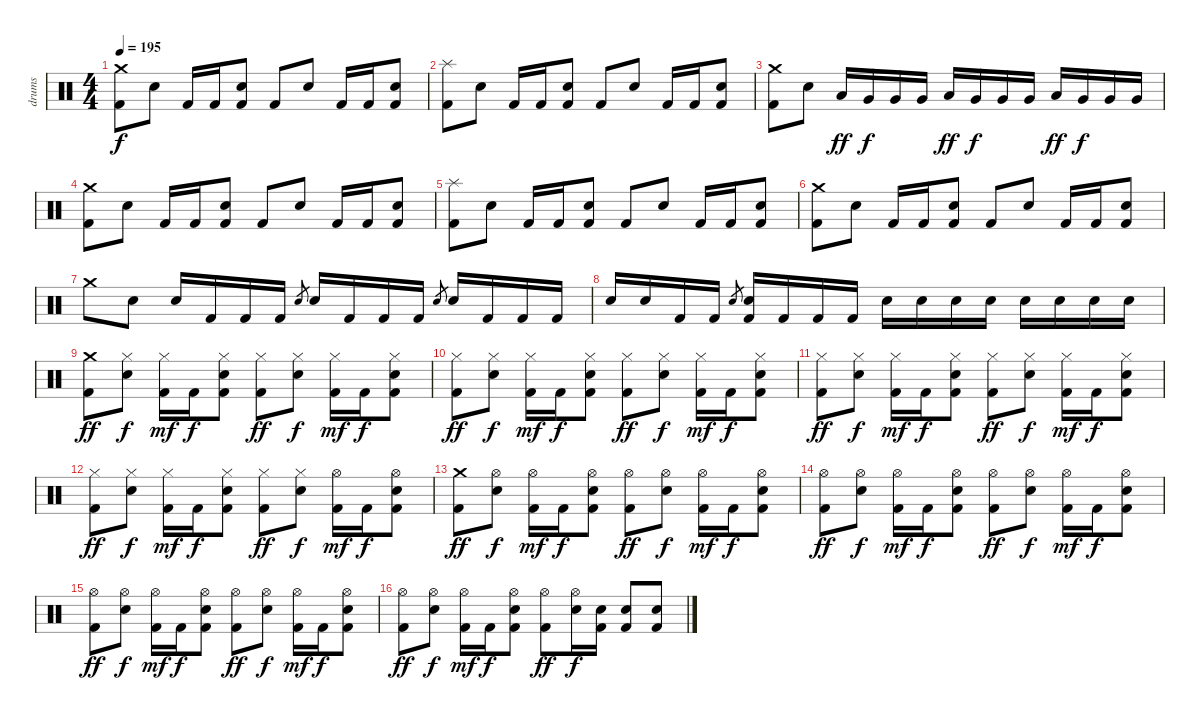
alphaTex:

\track ("drums" "drums") {instrument percussion}
\staff {score}
\articulation defaults
\ts (4 4)
\tempo 195
\clef neutral
\ks c
("Crash medium (hit)" "Kick (hit) 2").8{dy f} "Electric Snare (hit)".8 "Kick (hit) 2".16 "Kick (hit) 2".16 ("Electric Snare (hit)" "Kick (hit) 2").8 "Kick (hit) 2".8 "Electric Snare (hit)".8 "Kick (hit) 2".16 "Kick (hit) 2".16 ("Electric Snare (hit)" "Kick (hit) 2").8 |
("Splash (hit)" "Kick (hit) 2").8 "Electric Snare (hit)".8 "Kick (hit) 2".16 "Kick (hit) 2".16 ("Electric Snare (hit)" "Kick (hit) 2").8 "Kick (hit) 2".8 "Electric Snare (hit)".8 "Kick (hit) 2".16 "Kick (hit) 2".16 ("Electric Snare (hit)" "Kick (hit) 2").8 |
("Crash medium (hit)" "Kick (hit) 2").8 "Electric Snare (hit)".8 "Low Floor Tom (hit)".16{dy ff} "Very Low Tom (hit)".16{dy f} "Very Low Tom (hit)".16 "Very Low Tom (hit)".16 "Low Floor Tom (hit)".16{dy ff} "Very Low Tom (hit)".16{dy f} "Very Low Tom (hit)".16 "Very Low Tom (hit)".16 "Low Floor Tom (hit)".16{dy ff} "Very Low Tom (hit)".16{dy f} "Very Low Tom (hit)".16 "Very Low Tom (hit)".16 |
("Crash medium (hit)" "Kick (hit) 2").8 "Electric Snare (hit)".8 "Kick (hit) 2".16 "Kick (hit) 2".16 ("Electric Snare (hit)" "Kick (hit) 2").8 "Kick (hit) 2".8 "Electric Snare (hit)".8 "Kick (hit) 2".16 "Kick (hit) 2".16 ("Electric Snare (hit)" "Kick (hit) 2").8 |
("Splash (hit)" "Kick (hit) 2").8 "Electric Snare (hit)".8 "Kick (hit) 2".16 "Kick (hit) 2".16 ("Electric Snare (hit)" "Kick (hit) 2").8 "Kick (hit) 2".8 "Electric Snare (hit)".8 "Kick (hit) 2".16 "Kick (hit) 2".16 ("Electric Snare (hit)" "Kick (hit) 2").8 |
("Crash medium (hit)" "Kick (hit) 2").8 "Electric Snare (hit)".8 "Kick (hit) 2".16 "Kick (hit) 2".16 ("Electric Snare (hit)" "Kick (hit) 2").8 "Kick (hit) 2".8 "Electric Snare (hit)".8 "Kick (hit) 2".16 "Kick (hit) 2".16 ("Electric Snare (hit)" "Kick (hit) 2").8 |
"Crash medium (hit)".8 "Electric Snare (hit)".8 "Electric Snare (hit)".16 "Kick (hit) 2".16 "Kick (hit) 2".16 "Kick (hit) 2".16 "Electric Snare (hit)".8{gr} "Electric Snare (hit)".16 "Kick (hit) 2".16 "Kick (hit) 2".16 "Kick (hit) 2".16 "Electric Snare (hit)".8{gr} "Electric Snare (hit)".16 "Kick (hit) 2".16 "Kick (hit) 2".16 "Kick (hit) 2".16 |
"Electric Snare (hit)".16 "Electric Snare (hit)".16 "Kick (hit) 2".16 "Kick (hit) 2".16 "Electric Snare (hit)".8{gr} ("Electric Snare (hit)" "Kick (hit) 2").16 "Kick (hit) 2".16 "Kick (hit) 2".16 "Kick (hit) 2".16 "Electric Snare (hit)".16 "Electric Snare (hit)".16 "Electric Snare (hit)".16 "Electric Snare (hit)".16 "Electric Snare (hit)".16 "Electric Snare (hit)".16 "Electric Snare (hit)".16 "Electric Snare (hit)".16 |
("Crash medium (hit)" "Kick (hit) 2").8{dy ff} ("Hi-Hat (closed)" "Electric Snare (hit)").8{dy f} ("Hi-Hat (closed)" "Kick (hit) 2").16{dy mf} "Kick (hit) 2".16{dy f} ("Hi-Hat (closed)" "Electric Snare (hit)" "Kick (hit) 2").8 ("Hi-Hat (closed)" "Kick (hit) 2").8{dy ff} ("Hi-Hat (closed)" "Electric Snare (hit)").8{dy f} ("Hi-Hat (closed)" "Kick (hit) 2").16{dy mf} "Kick (hit) 2".16{dy f} ("Hi-Hat (closed)" "Electric Snare (hit)" "Kick (hit) 2").8 |
("Hi-Hat (closed)" "Kick (hit) 2").8{dy ff} ("Hi-Hat (closed)" "Electric Snare (hit)").8{dy f} ("Hi-Hat (closed)" "Kick (hit) 2").16{dy mf} "Kick (hit) 2".16{dy f} ("Hi-Hat (closed)" "Electric Snare (hit)" "Kick (hit) 2").8 ("Hi-Hat (closed)" "Kick (hit) 2").8{dy ff} ("Hi-Hat (closed)" "Electric Snare (hit)").8{dy f} ("Hi-Hat (closed)" "Kick (hit) 2").16{dy mf} "Kick (hit) 2".16{dy f} ("Hi-Hat (closed)" "Electric Snare (hit)" "Kick (hit) 2").8 |
("Hi-Hat (closed)" "Kick (hit) 2").8{dy ff} ("Hi-Hat (closed)" "Electric Snare (hit)").8{dy f} ("Hi-Hat (closed)" "Kick (hit) 2").16{dy mf} "Kick (hit) 2".16{dy f} ("Hi-Hat (closed)" "Electric Snare (hit)" "Kick (hit) 2").8 ("Hi-Hat (closed)" "Kick (hit) 2").8{dy ff} ("Hi-Hat (closed)" "Electric Snare (hit)").8{dy f} ("Hi-Hat (closed)" "Kick (hit) 2").16{dy mf} "Kick (hit) 2".16{dy f} ("Hi-Hat (closed)" "Electric Snare (hit)" "Kick (hit) 2").8 |
("Hi-Hat (closed)" "Kick (hit) 2").8{dy ff} ("Hi-Hat (closed)" "Electric Snare (hit)").8{dy f} ("Hi-Hat (closed)" "Kick (hit) 2").16{dy mf} "Kick (hit) 2".16{dy f} ("Hi-Hat (closed)" "Electric Snare (hit)" "Kick (hit) 2").8 ("Hi-Hat (closed)" "Kick (hit) 2").8{dy ff} ("Hi-Hat (closed)" "Electric Snare (hit)").8{dy f} ("Hi-Hat (open)" "Kick (hit) 2").16{dy mf} "Kick (hit) 2".16{dy f} ("Hi-Hat (open)" "Electric Snare (hit)" "Kick (hit) 2").8 |
("Crash medium (hit)" "Kick (hit) 2").8{dy ff} ("Hi-Hat (open)" "Electric Snare (hit)").8{dy f} ("Hi-Hat (open)" "Kick (hit) 2").16{dy mf} "Kick (hit) 2".16{dy f} ("Hi-Hat (open)" "Electric Snare (hit)" "Kick (hit) 2").8 ("Hi-Hat (open)" "Kick (hit) 2").8{dy ff} ("Hi-Hat (open)" "Electric Snare (hit)").8{dy f} ("Hi-Hat (open)" "Kick (hit) 2").16{dy mf} "Kick (hit) 2".16{dy f} ("Hi-Hat (open)" "Electric Snare (hit)" "Kick (hit) 2").8 |
("Hi-Hat (open)" "Kick (hit) 2").8{dy ff} ("Hi-Hat (open)" "Electric Snare (hit)").8{dy f} ("Hi-Hat (open)" "Kick (hit) 2").16{dy mf} "Kick (hit) 2".16{dy f} ("Hi-Hat (open)" "Electric Snare (hit)" "Kick (hit) 2").8 ("Hi-Hat (open)" "Kick (hit) 2").8{dy ff} ("Hi-Hat (open)" "Electric Snare (hit)").8{dy f} ("Hi-Hat (open)" "Kick (hit) 2").16{dy mf} "Kick (hit) 2".16{dy f} ("Hi-Hat (open)" "Electric Snare (hit)" "Kick (hit) 2").8 |
("Hi-Hat (open)" "Kick (hit) 2").8{dy ff} ("Hi-Hat (open)" "Electric Snare (hit)").8{dy f} ("Hi-Hat (open)" "Kick (hit) 2").16{dy mf} "Kick (hit) 2".16{dy f} ("Hi-Hat (open)" "Electric Snare (hit)" "Kick (hit) 2").8 ("Hi-Hat (open)" "Kick (hit) 2").8{dy ff} ("Hi-Hat (open)" "Electric Snare (hit)").8{dy f} ("Hi-Hat (open)" "Kick (hit) 2").16{dy mf} "Kick (hit) 2".16{dy f} ("Hi-Hat (open)" "Electric Snare (hit)" "Kick (hit) 2").8 |
("Hi-Hat (open)" "Kick (hit) 2").8{dy ff} ("Hi-Hat (open)" "Electric Snare (hit)").8{dy f} ("Hi-Hat (open)" "Kick (hit) 2").16{dy mf} "Kick (hit) 2".16{dy f} ("Hi-Hat (open)" "Electric Snare (hit)" "Kick (hit) 2").8 ("Hi-Hat (open)" "Kick (hit) 2").8{dy ff} ("Hi-Hat (open)" "Electric Snare (hit)").16{dy f} ("Electric Snare (hit)" "Kick (hit) 2").16 ("Electric Snare (hit)" "Kick (hit) 2").8 ("Electric Snare (hit)" "Kick (hit) 2").8
